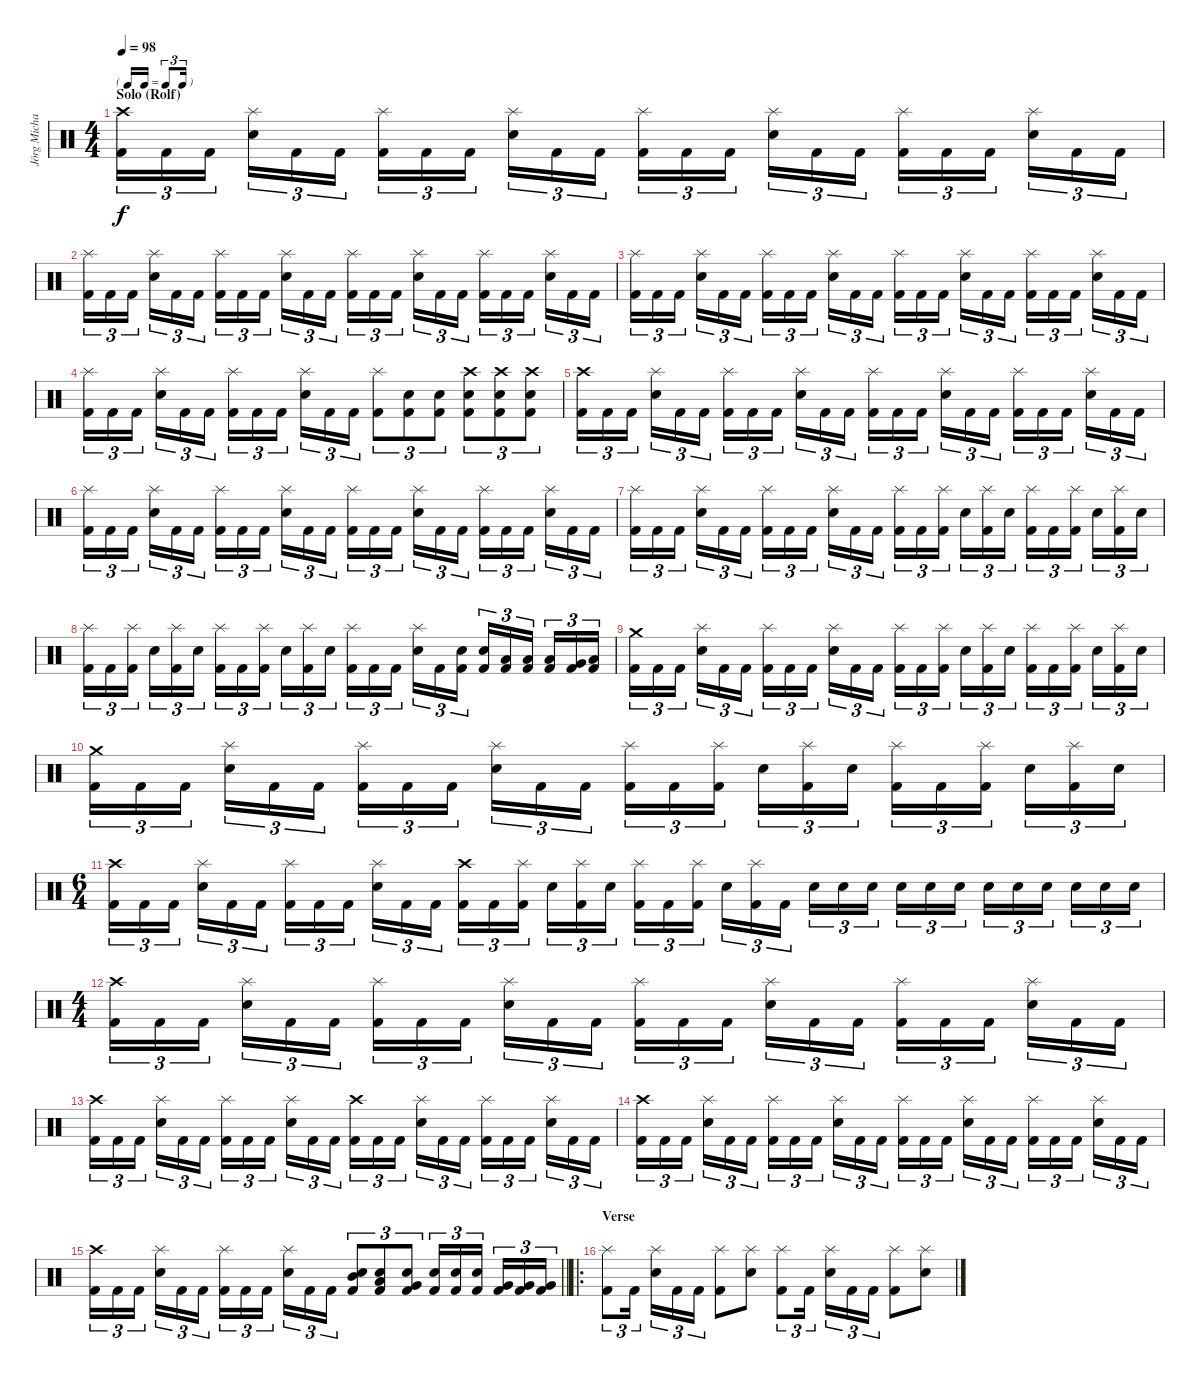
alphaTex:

\track ("Jörg Michael" "Jörg Micha") {instrument percussion}
\staff {score}
\articulation defaults
\ts (4 4)
\tf triplet16th
\section ("" "Solo (Rolf)")
\tempo 98
\clef neutral
\ks c
("Crash high (hit)" "Kick (hit) 2").16{tu (3 2) dy f} "Kick (hit) 2".16{tu (3 2)} "Kick (hit) 2".16{tu (3 2) beam splitsecondary} ("Splash (hit)" "Snare (hit) 2").16{tu (3 2)} "Kick (hit) 2".16{tu (3 2)} "Kick (hit) 2".16{tu (3 2)} ("Splash (hit)" "Kick (hit) 2").16{tu (3 2)} "Kick (hit) 2".16{tu (3 2)} "Kick (hit) 2".16{tu (3 2) beam splitsecondary} ("Splash (hit)" "Snare (hit) 2").16{tu (3 2)} "Kick (hit) 2".16{tu (3 2)} "Kick (hit) 2".16{tu (3 2)} ("Splash (hit)" "Kick (hit) 2").16{tu (3 2)} "Kick (hit) 2".16{tu (3 2)} "Kick (hit) 2".16{tu (3 2) beam splitsecondary} ("Splash (hit)" "Snare (hit) 2").16{tu (3 2)} "Kick (hit) 2".16{tu (3 2)} "Kick (hit) 2".16{tu (3 2)} ("Splash (hit)" "Kick (hit) 2").16{tu (3 2)} "Kick (hit) 2".16{tu (3 2)} "Kick (hit) 2".16{tu (3 2) beam splitsecondary} ("Splash (hit)" "Snare (hit) 2").16{tu (3 2)} "Kick (hit) 2".16{tu (3 2)} "Kick (hit) 2".16{tu (3 2)} |
("Splash (hit)" "Kick (hit) 2").16{tu (3 2)} "Kick (hit) 2".16{tu (3 2)} "Kick (hit) 2".16{tu (3 2) beam splitsecondary} ("Splash (hit)" "Snare (hit) 2").16{tu (3 2)} "Kick (hit) 2".16{tu (3 2)} "Kick (hit) 2".16{tu (3 2)} ("Splash (hit)" "Kick (hit) 2").16{tu (3 2)} "Kick (hit) 2".16{tu (3 2)} "Kick (hit) 2".16{tu (3 2) beam splitsecondary} ("Splash (hit)" "Snare (hit) 2").16{tu (3 2)} "Kick (hit) 2".16{tu (3 2)} "Kick (hit) 2".16{tu (3 2)} ("Splash (hit)" "Kick (hit) 2").16{tu (3 2)} "Kick (hit) 2".16{tu (3 2)} "Kick (hit) 2".16{tu (3 2) beam splitsecondary} ("Splash (hit)" "Snare (hit) 2").16{tu (3 2)} "Kick (hit) 2".16{tu (3 2)} "Kick (hit) 2".16{tu (3 2)} ("Splash (hit)" "Kick (hit) 2").16{tu (3 2)} "Kick (hit) 2".16{tu (3 2)} "Kick (hit) 2".16{tu (3 2) beam splitsecondary} ("Splash (hit)" "Snare (hit) 2").16{tu (3 2)} "Kick (hit) 2".16{tu (3 2)} "Kick (hit) 2".16{tu (3 2)} |
("Splash (hit)" "Kick (hit) 2").16{tu (3 2)} "Kick (hit) 2".16{tu (3 2)} "Kick (hit) 2".16{tu (3 2) beam splitsecondary} ("Splash (hit)" "Snare (hit) 2").16{tu (3 2)} "Kick (hit) 2".16{tu (3 2)} "Kick (hit) 2".16{tu (3 2)} ("Splash (hit)" "Kick (hit) 2").16{tu (3 2)} "Kick (hit) 2".16{tu (3 2)} "Kick (hit) 2".16{tu (3 2) beam splitsecondary} ("Splash (hit)" "Snare (hit) 2").16{tu (3 2)} "Kick (hit) 2".16{tu (3 2)} "Kick (hit) 2".16{tu (3 2)} ("Splash (hit)" "Kick (hit) 2").16{tu (3 2)} "Kick (hit) 2".16{tu (3 2)} "Kick (hit) 2".16{tu (3 2) beam splitsecondary} ("Splash (hit)" "Snare (hit) 2").16{tu (3 2)} "Kick (hit) 2".16{tu (3 2)} "Kick (hit) 2".16{tu (3 2)} ("Splash (hit)" "Kick (hit) 2").16{tu (3 2)} "Kick (hit) 2".16{tu (3 2)} "Kick (hit) 2".16{tu (3 2) beam splitsecondary} ("Splash (hit)" "Snare (hit) 2").16{tu (3 2)} "Kick (hit) 2".16{tu (3 2)} "Kick (hit) 2".16{tu (3 2)} |
("Splash (hit)" "Kick (hit) 2").16{tu (3 2)} "Kick (hit) 2".16{tu (3 2)} "Kick (hit) 2".16{tu (3 2) beam splitsecondary} ("Splash (hit)" "Snare (hit) 2").16{tu (3 2)} "Kick (hit) 2".16{tu (3 2)} "Kick (hit) 2".16{tu (3 2)} ("Splash (hit)" "Kick (hit) 2").16{tu (3 2)} "Kick (hit) 2".16{tu (3 2)} "Kick (hit) 2".16{tu (3 2) beam splitsecondary} ("Splash (hit)" "Snare (hit) 2").16{tu (3 2)} "Kick (hit) 2".16{tu (3 2)} "Kick (hit) 2".16{tu (3 2)} ("Splash (hit)" "Kick (hit) 2").8{tu (3 2)} ("Snare (hit) 2" "Kick (hit) 2").8{tu (3 2)} ("Snare (hit) 2" "Kick (hit) 2").8{tu (3 2)} ("Crash high (hit)" "Snare (hit) 2" "Kick (hit) 2").8{tu (3 2)} ("Crash high (hit)" "Snare (hit) 2" "Kick (hit) 2").8{tu (3 2)} ("Crash high (hit)" "Snare (hit) 2" "Kick (hit) 2").8{tu (3 2)} |
("Crash high (hit)" "Kick (hit) 2").16{tu (3 2)} "Kick (hit) 2".16{tu (3 2)} "Kick (hit) 2".16{tu (3 2) beam splitsecondary} ("Splash (hit)" "Snare (hit) 2").16{tu (3 2)} "Kick (hit) 2".16{tu (3 2)} "Kick (hit) 2".16{tu (3 2)} ("Splash (hit)" "Kick (hit) 2").16{tu (3 2)} "Kick (hit) 2".16{tu (3 2)} "Kick (hit) 2".16{tu (3 2) beam splitsecondary} ("Splash (hit)" "Snare (hit) 2").16{tu (3 2)} "Kick (hit) 2".16{tu (3 2)} "Kick (hit) 2".16{tu (3 2)} ("Splash (hit)" "Kick (hit) 2").16{tu (3 2)} "Kick (hit) 2".16{tu (3 2)} "Kick (hit) 2".16{tu (3 2) beam splitsecondary} ("Splash (hit)" "Snare (hit) 2").16{tu (3 2)} "Kick (hit) 2".16{tu (3 2)} "Kick (hit) 2".16{tu (3 2)} ("Splash (hit)" "Kick (hit) 2").16{tu (3 2)} "Kick (hit) 2".16{tu (3 2)} "Kick (hit) 2".16{tu (3 2) beam splitsecondary} ("Splash (hit)" "Snare (hit) 2").16{tu (3 2)} "Kick (hit) 2".16{tu (3 2)} "Kick (hit) 2".16{tu (3 2)} |
("Splash (hit)" "Kick (hit) 2").16{tu (3 2)} "Kick (hit) 2".16{tu (3 2)} "Kick (hit) 2".16{tu (3 2) beam splitsecondary} ("Splash (hit)" "Snare (hit) 2").16{tu (3 2)} "Kick (hit) 2".16{tu (3 2)} "Kick (hit) 2".16{tu (3 2)} ("Splash (hit)" "Kick (hit) 2").16{tu (3 2)} "Kick (hit) 2".16{tu (3 2)} "Kick (hit) 2".16{tu (3 2) beam splitsecondary} ("Splash (hit)" "Snare (hit) 2").16{tu (3 2)} "Kick (hit) 2".16{tu (3 2)} "Kick (hit) 2".16{tu (3 2)} ("Splash (hit)" "Kick (hit) 2").16{tu (3 2)} "Kick (hit) 2".16{tu (3 2)} "Kick (hit) 2".16{tu (3 2) beam splitsecondary} ("Splash (hit)" "Snare (hit) 2").16{tu (3 2)} "Kick (hit) 2".16{tu (3 2)} "Kick (hit) 2".16{tu (3 2)} ("Splash (hit)" "Kick (hit) 2").16{tu (3 2)} "Kick (hit) 2".16{tu (3 2)} "Kick (hit) 2".16{tu (3 2) beam splitsecondary} ("Splash (hit)" "Snare (hit) 2").16{tu (3 2)} "Kick (hit) 2".16{tu (3 2)} "Kick (hit) 2".16{tu (3 2)} |
("Splash (hit)" "Kick (hit) 2").16{tu (3 2)} "Kick (hit) 2".16{tu (3 2)} "Kick (hit) 2".16{tu (3 2) beam splitsecondary} ("Splash (hit)" "Snare (hit) 2").16{tu (3 2)} "Kick (hit) 2".16{tu (3 2)} "Kick (hit) 2".16{tu (3 2)} ("Splash (hit)" "Kick (hit) 2").16{tu (3 2)} "Kick (hit) 2".16{tu (3 2)} "Kick (hit) 2".16{tu (3 2) beam splitsecondary} ("Splash (hit)" "Snare (hit) 2").16{tu (3 2)} "Kick (hit) 2".16{tu (3 2)} "Kick (hit) 2".16{tu (3 2)} ("Splash (hit)" "Kick (hit) 2").16{tu (3 2)} "Kick (hit) 2".16{tu (3 2)} ("Splash (hit)" "Kick (hit) 2").16{tu (3 2) beam splitsecondary} "Snare (hit) 2".16{tu (3 2)} ("Splash (hit)" "Kick (hit) 2").16{tu (3 2)} "Snare (hit) 2".16{tu (3 2)} ("Splash (hit)" "Kick (hit) 2").16{tu (3 2)} "Kick (hit) 2".16{tu (3 2)} ("Splash (hit)" "Kick (hit) 2").16{tu (3 2) beam splitsecondary} "Snare (hit) 2".16{tu (3 2)} ("Splash (hit)" "Kick (hit) 2").16{tu (3 2)} "Snare (hit) 2".16{tu (3 2)} |
("Splash (hit)" "Kick (hit) 2").16{tu (3 2)} "Kick (hit) 2".16{tu (3 2)} ("Splash (hit)" "Kick (hit) 2").16{tu (3 2) beam splitsecondary} "Snare (hit) 2".16{tu (3 2)} ("Splash (hit)" "Kick (hit) 2").16{tu (3 2)} "Snare (hit) 2".16{tu (3 2)} ("Splash (hit)" "Kick (hit) 2").16{tu (3 2)} "Kick (hit) 2".16{tu (3 2)} ("Splash (hit)" "Kick (hit) 2").16{tu (3 2) beam splitsecondary} "Snare (hit) 2".16{tu (3 2)} ("Splash (hit)" "Kick (hit) 2").16{tu (3 2)} "Snare (hit) 2".16{tu (3 2)} ("Splash (hit)" "Kick (hit) 2").16{tu (3 2)} "Kick (hit) 2".16{tu (3 2)} "Kick (hit) 2".16{tu (3 2) beam splitsecondary} ("Splash (hit)" "Snare (hit) 2").16{tu (3 2)} "Kick (hit) 2".16{tu (3 2)} ("Snare (hit) 2" "Kick (hit) 2").16{tu (3 2)} ("Snare (hit) 2" "Kick (hit) 2").16{tu (3 2)} ("Low Tom (hit)" "Kick (hit) 2").16{tu (3 2)} ("Low Tom (hit)" "Kick (hit) 2").16{tu (3 2) beam splitsecondary} ("Low Tom (hit)" "Kick (hit) 2").16{tu (3 2)} ("Very Low Tom (hit)" "Kick (hit) 2").16{tu (3 2)} ("Low Floor Tom (hit)" "Kick (hit) 2").16{tu (3 2)} |
("Crash medium (hit)" "Kick (hit) 2").16{tu (3 2)} "Kick (hit) 2".16{tu (3 2)} "Kick (hit) 2".16{tu (3 2) beam splitsecondary} ("Splash (hit)" "Snare (hit) 2").16{tu (3 2)} "Kick (hit) 2".16{tu (3 2)} "Kick (hit) 2".16{tu (3 2)} ("Splash (hit)" "Kick (hit) 2").16{tu (3 2)} "Kick (hit) 2".16{tu (3 2)} "Kick (hit) 2".16{tu (3 2) beam splitsecondary} ("Splash (hit)" "Snare (hit) 2").16{tu (3 2)} "Kick (hit) 2".16{tu (3 2)} "Kick (hit) 2".16{tu (3 2)} ("Splash (hit)" "Kick (hit) 2").16{tu (3 2)} "Kick (hit) 2".16{tu (3 2)} ("Splash (hit)" "Kick (hit) 2").16{tu (3 2) beam splitsecondary} "Snare (hit) 2".16{tu (3 2)} ("Splash (hit)" "Kick (hit) 2").16{tu (3 2)} "Snare (hit) 2".16{tu (3 2)} ("Splash (hit)" "Kick (hit) 2").16{tu (3 2)} "Kick (hit) 2".16{tu (3 2)} ("Splash (hit)" "Kick (hit) 2").16{tu (3 2) beam splitsecondary} "Snare (hit) 2".16{tu (3 2)} ("Splash (hit)" "Kick (hit) 2").16{tu (3 2)} "Snare (hit) 2".16{tu (3 2)} |
("Crash medium (hit)" "Kick (hit) 2").16{tu (3 2)} "Kick (hit) 2".16{tu (3 2)} "Kick (hit) 2".16{tu (3 2) beam splitsecondary} ("Splash (hit)" "Snare (hit) 2").16{tu (3 2)} "Kick (hit) 2".16{tu (3 2)} "Kick (hit) 2".16{tu (3 2)} ("Splash (hit)" "Kick (hit) 2").16{tu (3 2)} "Kick (hit) 2".16{tu (3 2)} "Kick (hit) 2".16{tu (3 2) beam splitsecondary} ("Splash (hit)" "Snare (hit) 2").16{tu (3 2)} "Kick (hit) 2".16{tu (3 2)} "Kick (hit) 2".16{tu (3 2)} ("Splash (hit)" "Kick (hit) 2").16{tu (3 2)} "Kick (hit) 2".16{tu (3 2)} ("Splash (hit)" "Kick (hit) 2").16{tu (3 2) beam splitsecondary} "Snare (hit) 2".16{tu (3 2)} ("Splash (hit)" "Kick (hit) 2").16{tu (3 2)} "Snare (hit) 2".16{tu (3 2)} ("Splash (hit)" "Kick (hit) 2").16{tu (3 2)} "Kick (hit) 2".16{tu (3 2)} ("Splash (hit)" "Kick (hit) 2").16{tu (3 2) beam splitsecondary} "Snare (hit) 2".16{tu (3 2)} ("Splash (hit)" "Kick (hit) 2").16{tu (3 2)} "Snare (hit) 2".16{tu (3 2)} |
\ts (6 4)
("Crash high (hit)" "Kick (hit) 2").16{tu (3 2)} "Kick (hit) 2".16{tu (3 2)} "Kick (hit) 2".16{tu (3 2) beam splitsecondary} ("Splash (hit)" "Snare (hit) 2").16{tu (3 2)} "Kick (hit) 2".16{tu (3 2)} "Kick (hit) 2".16{tu (3 2) beam splitsecondary} ("Splash (hit)" "Kick (hit) 2").16{tu (3 2)} "Kick (hit) 2".16{tu (3 2)} "Kick (hit) 2".16{tu (3 2) beam splitsecondary} ("Splash (hit)" "Snare (hit) 2").16{tu (3 2)} "Kick (hit) 2".16{tu (3 2)} "Kick (hit) 2".16{tu (3 2) beam splitsecondary} ("Crash high (hit)" "Kick (hit) 2").16{tu (3 2)} "Kick (hit) 2".16{tu (3 2)} ("Splash (hit)" "Kick (hit) 2").16{tu (3 2) beam splitsecondary} "Snare (hit) 2".16{tu (3 2)} ("Splash (hit)" "Kick (hit) 2").16{tu (3 2)} "Snare (hit) 2".16{tu (3 2)} ("Splash (hit)" "Kick (hit) 2").16{tu (3 2)} "Kick (hit) 2".16{tu (3 2)} ("Splash (hit)" "Kick (hit) 2").16{tu (3 2) beam splitsecondary} "Snare (hit) 2".16{tu (3 2)} ("Splash (hit)" "Kick (hit) 2").16{tu (3 2)} "Kick (hit) 2".16{tu (3 2) beam splitsecondary} "Snare (hit) 2".16{tu (3 2)} "Snare (hit) 2".16{tu (3 2)} "Snare (hit) 2".16{tu (3 2) beam splitsecondary} "Snare (hit) 2".16{tu (3 2)} "Snare (hit) 2".16{tu (3 2)} "Snare (hit) 2".16{tu (3 2) beam splitsecondary} "Snare (hit) 2".16{tu (3 2)} "Snare (hit) 2".16{tu (3 2)} "Snare (hit) 2".16{tu (3 2) beam splitsecondary} "Snare (hit) 2".16{tu (3 2)} "Snare (hit) 2".16{tu (3 2)} "Snare (hit) 2".16{tu (3 2)} |
\ts (4 4)
("Crash high (hit)" "Kick (hit) 2").16{tu (3 2)} "Kick (hit) 2".16{tu (3 2)} "Kick (hit) 2".16{tu (3 2) beam splitsecondary} ("Splash (hit)" "Snare (hit) 2").16{tu (3 2)} "Kick (hit) 2".16{tu (3 2)} "Kick (hit) 2".16{tu (3 2)} ("Splash (hit)" "Kick (hit) 2").16{tu (3 2)} "Kick (hit) 2".16{tu (3 2)} "Kick (hit) 2".16{tu (3 2) beam splitsecondary} ("Splash (hit)" "Snare (hit) 2").16{tu (3 2)} "Kick (hit) 2".16{tu (3 2)} "Kick (hit) 2".16{tu (3 2)} ("Splash (hit)" "Kick (hit) 2").16{tu (3 2)} "Kick (hit) 2".16{tu (3 2)} "Kick (hit) 2".16{tu (3 2) beam splitsecondary} ("Splash (hit)" "Snare (hit) 2").16{tu (3 2)} "Kick (hit) 2".16{tu (3 2)} "Kick (hit) 2".16{tu (3 2)} ("Splash (hit)" "Kick (hit) 2").16{tu (3 2)} "Kick (hit) 2".16{tu (3 2)} "Kick (hit) 2".16{tu (3 2) beam splitsecondary} ("Splash (hit)" "Snare (hit) 2").16{tu (3 2)} "Kick (hit) 2".16{tu (3 2)} "Kick (hit) 2".16{tu (3 2)} |
("Crash high (hit)" "Kick (hit) 2").16{tu (3 2)} "Kick (hit) 2".16{tu (3 2)} "Kick (hit) 2".16{tu (3 2) beam splitsecondary} ("Splash (hit)" "Snare (hit) 2").16{tu (3 2)} "Kick (hit) 2".16{tu (3 2)} "Kick (hit) 2".16{tu (3 2)} ("Splash (hit)" "Kick (hit) 2").16{tu (3 2)} "Kick (hit) 2".16{tu (3 2)} "Kick (hit) 2".16{tu (3 2) beam splitsecondary} ("Splash (hit)" "Snare (hit) 2").16{tu (3 2)} "Kick (hit) 2".16{tu (3 2)} "Kick (hit) 2".16{tu (3 2)} ("Crash high (hit)" "Kick (hit) 2").16{tu (3 2)} "Kick (hit) 2".16{tu (3 2)} "Kick (hit) 2".16{tu (3 2) beam splitsecondary} ("Splash (hit)" "Snare (hit) 2").16{tu (3 2)} "Kick (hit) 2".16{tu (3 2)} "Kick (hit) 2".16{tu (3 2)} ("Splash (hit)" "Kick (hit) 2").16{tu (3 2)} "Kick (hit) 2".16{tu (3 2)} "Kick (hit) 2".16{tu (3 2) beam splitsecondary} ("Splash (hit)" "Snare (hit) 2").16{tu (3 2)} "Kick (hit) 2".16{tu (3 2)} "Kick (hit) 2".16{tu (3 2)} |
("Crash high (hit)" "Kick (hit) 2").16{tu (3 2)} "Kick (hit) 2".16{tu (3 2)} "Kick (hit) 2".16{tu (3 2) beam splitsecondary} ("Splash (hit)" "Snare (hit) 2").16{tu (3 2)} "Kick (hit) 2".16{tu (3 2)} "Kick (hit) 2".16{tu (3 2)} ("Splash (hit)" "Kick (hit) 2").16{tu (3 2)} "Kick (hit) 2".16{tu (3 2)} "Kick (hit) 2".16{tu (3 2) beam splitsecondary} ("Splash (hit)" "Snare (hit) 2").16{tu (3 2)} "Kick (hit) 2".16{tu (3 2)} "Kick (hit) 2".16{tu (3 2)} ("Splash (hit)" "Kick (hit) 2").16{tu (3 2)} "Kick (hit) 2".16{tu (3 2)} "Kick (hit) 2".16{tu (3 2) beam splitsecondary} ("Splash (hit)" "Snare (hit) 2").16{tu (3 2)} "Kick (hit) 2".16{tu (3 2)} "Kick (hit) 2".16{tu (3 2)} ("Splash (hit)" "Kick (hit) 2").16{tu (3 2)} "Kick (hit) 2".16{tu (3 2)} "Kick (hit) 2".16{tu (3 2) beam splitsecondary} ("Splash (hit)" "Snare (hit) 2").16{tu (3 2)} "Kick (hit) 2".16{tu (3 2)} "Kick (hit) 2".16{tu (3 2)} |
\barLineRight lightlight
("Crash high (hit)" "Kick (hit) 2").16{tu (3 2)} "Kick (hit) 2".16{tu (3 2)} "Kick (hit) 2".16{tu (3 2) beam splitsecondary} ("Splash (hit)" "Snare (hit) 2").16{tu (3 2)} "Kick (hit) 2".16{tu (3 2)} "Kick (hit) 2".16{tu (3 2)} ("Splash (hit)" "Kick (hit) 2").16{tu (3 2)} "Kick (hit) 2".16{tu (3 2)} "Kick (hit) 2".16{tu (3 2) beam splitsecondary} ("Splash (hit)" "Snare (hit) 2").16{tu (3 2)} "Kick (hit) 2".16{tu (3 2)} "Kick (hit) 2".16{tu (3 2)} ("Snare (hit) 2" "Mid Tom (hit)" "Kick (hit) 2").8{tu (3 2)} ("Snare (hit) 2" "Low Tom (hit)" "Kick (hit) 2").8{tu (3 2)} ("Snare (hit) 2" "Very Low Tom (hit)" "Kick (hit) 2").8{tu (3 2)} ("Snare (hit) 2" "Kick (hit) 2").16{tu (3 2)} ("Snare (hit) 2" "Kick (hit) 2").16{tu (3 2)} ("Snare (hit) 2" "Kick (hit) 2").16{tu (3 2) beam splitsecondary} ("Very Low Tom (hit)" "Kick (hit) 2").16{tu (3 2)} ("Very Low Tom (hit)" "Kick (hit) 2").16{tu (3 2)} ("Very Low Tom (hit)" "Kick (hit) 2").16{tu (3 2)} |
\ro
\section ("" "Verse")
("Splash (hit)" "Kick (hit) 2").8{tu (3 2)} "Kick (hit) 2".16{tu (3 2) beam splitsecondary} ("Splash (hit)" "Snare (hit) 2").16{tu (3 2)} "Kick (hit) 2".16{tu (3 2)} "Kick (hit) 2".16{tu (3 2)} ("Splash (hit)" "Kick (hit) 2").8 ("Splash (hit)" "Snare (hit) 2").8 ("Splash (hit)" "Kick (hit) 2").8{tu (3 2)} "Kick (hit) 2".16{tu (3 2) beam splitsecondary} ("Splash (hit)" "Snare (hit) 2").16{tu (3 2)} "Kick (hit) 2".16{tu (3 2)} "Kick (hit) 2".16{tu (3 2)} ("Splash (hit)" "Kick (hit) 2").8 ("Splash (hit)" "Snare (hit) 2").8
